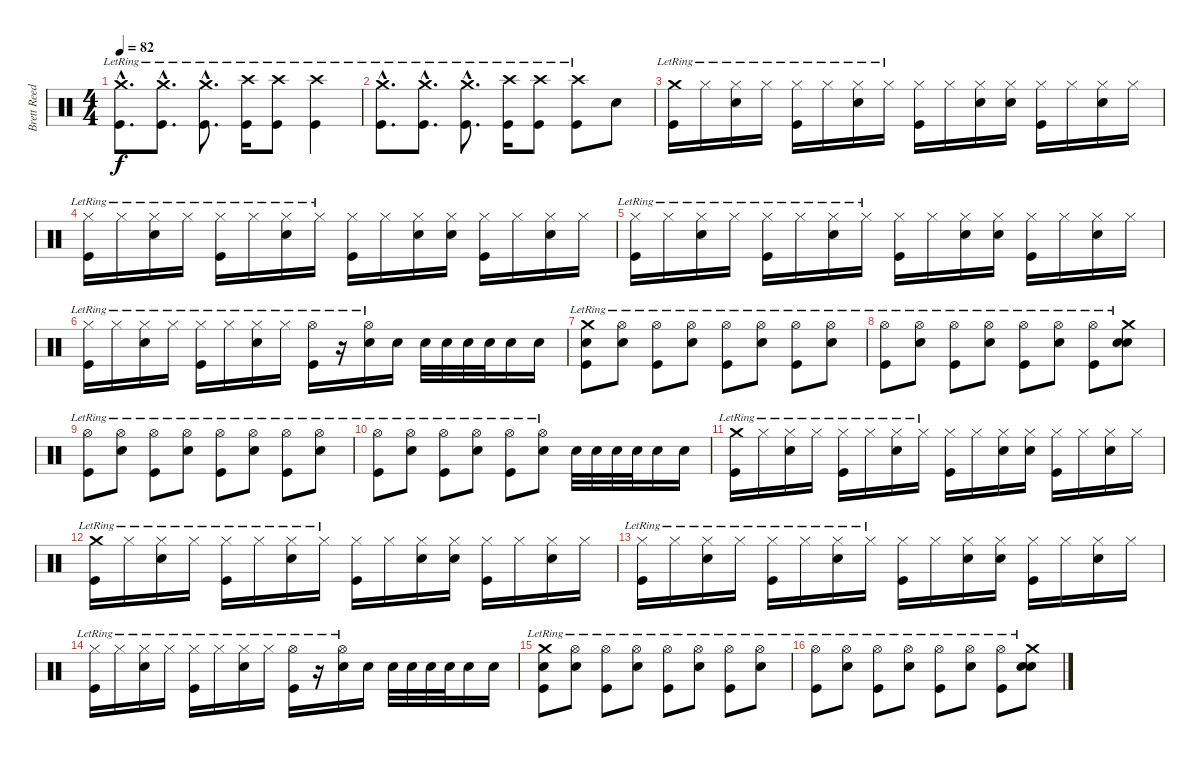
\track ("Brett Reed" "Brett Reed") {instrument percussion}
\staff {score}
\articulation defaults
\ts (4 4)
\tempo 82
\clef neutral
\ks c
("Crash medium (hit)"{hac lr} "Kick (hit)"{hac}).8{d dy f} ("Crash medium (hit)"{hac lr} "Kick (hit)"{hac}).8{d} ("Crash medium (hit)"{hac lr} "Kick (hit)"{hac}).8{d} ("Crash high (hit)"{lr} "Kick (hit)").16 ("Crash high (hit)"{lr} "Kick (hit)").8 ("Crash high (hit)"{lr} "Kick (hit)").4 |
("Crash medium (hit)"{hac lr} "Kick (hit)"{hac}).8{d} ("Crash medium (hit)"{hac lr} "Kick (hit)"{hac}).8{d} ("Crash medium (hit)"{hac lr} "Kick (hit)"{hac}).8{d} ("Crash high (hit)"{lr} "Kick (hit)").16 ("Crash high (hit)"{lr} "Kick (hit)").8 ("Crash high (hit)"{lr} "Kick (hit)").8 "Snare (hit) 2".8 |
("Crash medium (hit)"{lr} "Kick (hit)").16 "Hi-Hat (closed)"{lr}.16 ("Hi-Hat (closed)"{lr} "Snare (hit) 2").16 "Hi-Hat (closed)"{lr}.16 ("Hi-Hat (closed)"{lr} "Kick (hit)").16 "Hi-Hat (closed)"{lr}.16 ("Hi-Hat (closed)"{lr} "Snare (hit) 2").16 "Hi-Hat (closed)"{lr}.16 ("Hi-Hat (closed)" "Kick (hit)").16 "Hi-Hat (closed)".16 ("Hi-Hat (closed)" "Snare (hit) 2").16 ("Hi-Hat (closed)" "Snare (hit)").16 ("Hi-Hat (closed)" "Kick (hit)").16 "Hi-Hat (closed)".16 ("Hi-Hat (closed)" "Snare (hit) 2").16 "Hi-Hat (closed)".16 |
("Hi-Hat (closed)"{lr} "Kick (hit)").16 "Hi-Hat (closed)"{lr}.16 ("Hi-Hat (closed)"{lr} "Snare (hit) 2").16 "Hi-Hat (closed)"{lr}.16 ("Hi-Hat (closed)"{lr} "Kick (hit)").16 "Hi-Hat (closed)"{lr}.16 ("Hi-Hat (closed)"{lr} "Snare (hit) 2").16 "Hi-Hat (closed)"{lr}.16 ("Hi-Hat (closed)" "Kick (hit)").16 "Hi-Hat (closed)".16 ("Hi-Hat (closed)" "Snare (hit) 2").16 ("Hi-Hat (closed)" "Snare (hit)").16 ("Hi-Hat (closed)" "Kick (hit)").16 "Hi-Hat (closed)".16 ("Hi-Hat (closed)" "Snare (hit) 2").16 "Hi-Hat (closed)".16 |
("Hi-Hat (closed)"{lr} "Kick (hit)").16 "Hi-Hat (closed)"{lr}.16 ("Hi-Hat (closed)"{lr} "Snare (hit) 2").16 "Hi-Hat (closed)"{lr}.16 ("Hi-Hat (closed)"{lr} "Kick (hit)").16 "Hi-Hat (closed)"{lr}.16 ("Hi-Hat (closed)"{lr} "Snare (hit) 2").16 "Hi-Hat (closed)"{lr}.16 ("Hi-Hat (closed)" "Kick (hit)").16 "Hi-Hat (closed)".16 ("Hi-Hat (closed)" "Snare (hit) 2").16 ("Hi-Hat (closed)" "Snare (hit)").16 ("Hi-Hat (closed)" "Kick (hit)").16 "Hi-Hat (closed)".16 ("Hi-Hat (closed)" "Snare (hit) 2").16 "Hi-Hat (closed)".16 |
("Hi-Hat (closed)"{lr} "Kick (hit)").16 "Hi-Hat (closed)"{lr}.16 ("Hi-Hat (closed)"{lr} "Snare (hit) 2").16 "Hi-Hat (closed)"{lr}.16 ("Hi-Hat (closed)"{lr} "Kick (hit)").16 "Hi-Hat (closed)"{lr}.16 ("Hi-Hat (closed)"{lr} "Snare (hit) 2").16 "Hi-Hat (closed)"{lr}.16 ("Hi-Hat (open)"{lr} "Kick (hit)").16 r.16 ("Hi-Hat (open)"{lr} "Snare (hit) 2").16 "Snare (hit)".16 "Snare (hit) 2".32 "Snare (hit) 2".32 "Snare (hit) 2".32 "Snare (hit) 2".32 "Snare (hit) 2".16 "Snare (hit) 2".16 |
("Crash medium (hit)"{lr} "Kick (hit)" "Snare (hit)").8 ("Hi-Hat (open)"{lr} "Snare (hit) 2").8 ("Hi-Hat (open)"{lr} "Kick (hit)").8 ("Hi-Hat (open)"{lr} "Snare (hit) 2").8 ("Hi-Hat (open)"{lr} "Kick (hit)").8 ("Hi-Hat (open)"{lr} "Snare (hit) 2").8 ("Hi-Hat (open)"{lr} "Kick (hit)").8 ("Hi-Hat (open)"{lr} "Snare (hit) 2").8 |
("Hi-Hat (open)"{lr} "Kick (hit)").8 ("Hi-Hat (open)"{lr} "Snare (hit) 2").8 ("Hi-Hat (open)"{lr} "Kick (hit)").8 ("Hi-Hat (open)"{lr} "Snare (hit) 2").8 ("Hi-Hat (open)"{lr} "Kick (hit)").8 ("Hi-Hat (open)"{lr} "Snare (hit) 2").8 ("Hi-Hat (open)"{lr} "Kick (hit)").8 ("Crash medium (hit)"{lr} "Snare (hit)" "Snare (hit) 2").8 |
("Hi-Hat (open)"{lr} "Kick (hit)").8 ("Hi-Hat (open)"{lr} "Snare (hit) 2").8 ("Hi-Hat (open)"{lr} "Kick (hit)").8 ("Hi-Hat (open)"{lr} "Snare (hit) 2").8 ("Hi-Hat (open)"{lr} "Kick (hit)").8 ("Hi-Hat (open)"{lr} "Snare (hit) 2").8 ("Hi-Hat (open)"{lr} "Kick (hit)").8 ("Hi-Hat (open)"{lr} "Snare (hit) 2").8 |
("Hi-Hat (open)"{lr} "Kick (hit)").8 ("Hi-Hat (open)"{lr} "Snare (hit) 2").8 ("Hi-Hat (open)"{lr} "Kick (hit)").8 ("Hi-Hat (open)"{lr} "Snare (hit) 2").8 ("Hi-Hat (open)"{lr} "Kick (hit)").8 ("Hi-Hat (open)"{lr} "Snare (hit) 2").8 "Snare (hit) 2".32 "Snare (hit) 2".32 "Snare (hit) 2".32 "Snare (hit) 2".32 "Snare (hit) 2".16 "Snare (hit) 2".16 |
("Crash medium (hit)"{lr} "Kick (hit)").16 "Hi-Hat (closed)"{lr}.16 ("Hi-Hat (closed)"{lr} "Snare (hit) 2").16 "Hi-Hat (closed)"{lr}.16 ("Hi-Hat (closed)"{lr} "Kick (hit)").16 "Hi-Hat (closed)"{lr}.16 ("Hi-Hat (closed)"{lr} "Snare (hit) 2").16 "Hi-Hat (closed)"{lr}.16 ("Hi-Hat (closed)" "Kick (hit)").16 "Hi-Hat (closed)".16 ("Hi-Hat (closed)" "Snare (hit) 2").16 ("Hi-Hat (closed)" "Snare (hit)").16 ("Hi-Hat (closed)" "Kick (hit)").16 "Hi-Hat (closed)".16 ("Hi-Hat (closed)" "Snare (hit) 2").16 "Hi-Hat (closed)".16 |
("Crash medium (hit)"{lr} "Kick (hit)").16 "Hi-Hat (closed)"{lr}.16 ("Hi-Hat (closed)"{lr} "Snare (hit) 2").16 "Hi-Hat (closed)"{lr}.16 ("Hi-Hat (closed)"{lr} "Kick (hit)").16 "Hi-Hat (closed)"{lr}.16 ("Hi-Hat (closed)"{lr} "Snare (hit) 2").16 "Hi-Hat (closed)"{lr}.16 ("Hi-Hat (closed)" "Kick (hit)").16 "Hi-Hat (closed)".16 ("Hi-Hat (closed)" "Snare (hit) 2").16 ("Hi-Hat (closed)" "Snare (hit)").16 ("Hi-Hat (closed)" "Kick (hit)").16 "Hi-Hat (closed)".16 ("Hi-Hat (closed)" "Snare (hit) 2").16 "Hi-Hat (closed)".16 |
("Hi-Hat (closed)"{lr} "Kick (hit)").16 "Hi-Hat (closed)"{lr}.16 ("Hi-Hat (closed)"{lr} "Snare (hit) 2").16 "Hi-Hat (closed)"{lr}.16 ("Hi-Hat (closed)"{lr} "Kick (hit)").16 "Hi-Hat (closed)"{lr}.16 ("Hi-Hat (closed)"{lr} "Snare (hit) 2").16 "Hi-Hat (closed)"{lr}.16 ("Hi-Hat (closed)" "Kick (hit)").16 "Hi-Hat (closed)".16 ("Hi-Hat (closed)" "Snare (hit) 2").16 ("Hi-Hat (closed)" "Snare (hit)").16 ("Hi-Hat (closed)" "Kick (hit)").16 "Hi-Hat (closed)".16 ("Hi-Hat (closed)" "Snare (hit) 2").16 "Hi-Hat (closed)".16 |
("Hi-Hat (closed)"{lr} "Kick (hit)").16 "Hi-Hat (closed)"{lr}.16 ("Hi-Hat (closed)"{lr} "Snare (hit) 2").16 "Hi-Hat (closed)"{lr}.16 ("Hi-Hat (closed)"{lr} "Kick (hit)").16 "Hi-Hat (closed)"{lr}.16 ("Hi-Hat (closed)"{lr} "Snare (hit) 2").16 "Hi-Hat (closed)"{lr}.16 ("Hi-Hat (open)"{lr} "Kick (hit)").16 r.16 ("Hi-Hat (open)"{lr} "Snare (hit) 2").16 "Snare (hit)".16 "Snare (hit) 2".32 "Snare (hit) 2".32 "Snare (hit) 2".32 "Snare (hit) 2".32 "Snare (hit) 2".16 "Snare (hit) 2".16 |
("Crash medium (hit)"{lr} "Kick (hit)" "Snare (hit)").8 ("Hi-Hat (open)"{lr} "Snare (hit) 2").8 ("Hi-Hat (open)"{lr} "Kick (hit)").8 ("Hi-Hat (open)"{lr} "Snare (hit) 2").8 ("Hi-Hat (open)"{lr} "Kick (hit)").8 ("Hi-Hat (open)"{lr} "Snare (hit) 2").8 ("Hi-Hat (open)"{lr} "Kick (hit)").8 ("Hi-Hat (open)"{lr} "Snare (hit) 2").8 |
("Hi-Hat (open)"{lr} "Kick (hit)").8 ("Hi-Hat (open)"{lr} "Snare (hit) 2").8 ("Hi-Hat (open)"{lr} "Kick (hit)").8 ("Hi-Hat (open)"{lr} "Snare (hit) 2").8 ("Hi-Hat (open)"{lr} "Kick (hit)").8 ("Hi-Hat (open)"{lr} "Snare (hit) 2").8 ("Hi-Hat (open)"{lr} "Kick (hit)").8 ("Crash medium (hit)"{lr} "Snare (hit)" "Snare (hit) 2").8
